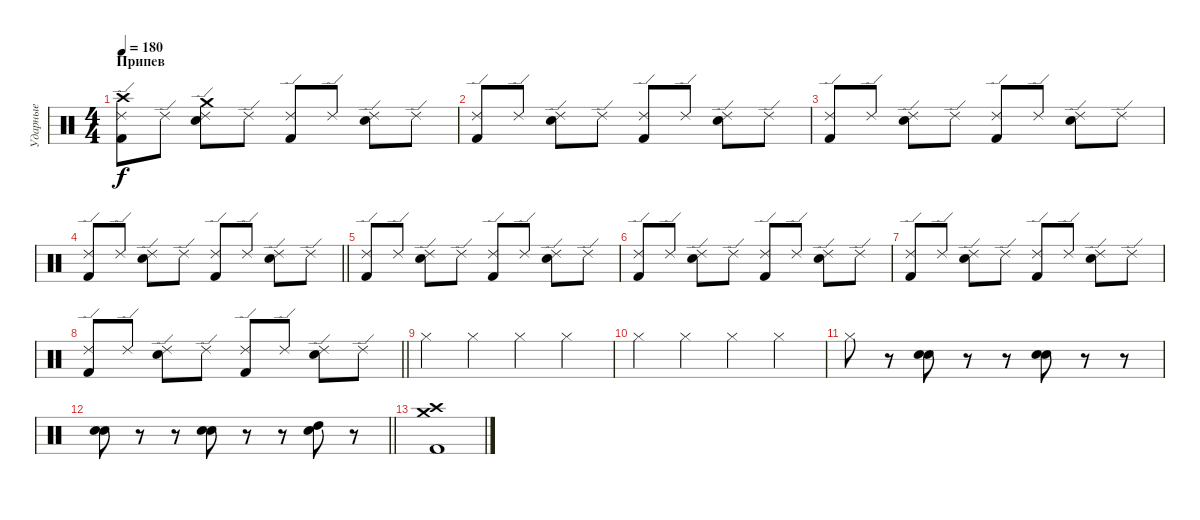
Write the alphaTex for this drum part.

\track ("Ударные" "Ударные") {instrument percussion}
\staff {score}
\articulation defaults
\ts (4 4)
\section ("" "Припев")
\tempo 180
\clef neutral
\ks c
("Crash high (hit)" "Ride (edge) 2" "Kick (hit) 2").8{dy f} "Ride (edge) 2".8 ("Crash medium (hit)" "Ride (edge) 2" "Electric Snare (hit)").8 "Ride (edge) 2".8 ("Ride (edge) 2" "Kick (hit) 2").8 "Ride (edge) 2".8 ("Ride (edge) 2" "Electric Snare (hit)").8 "Ride (edge) 2".8 |
("Ride (edge) 2" "Kick (hit) 2").8 "Ride (edge) 2".8 ("Ride (edge) 2" "Electric Snare (hit)").8 "Ride (edge) 2".8 ("Ride (edge) 2" "Kick (hit) 2").8 "Ride (edge) 2".8 ("Ride (edge) 2" "Electric Snare (hit)").8 "Ride (edge) 2".8 |
("Ride (edge) 2" "Kick (hit) 2").8 "Ride (edge) 2".8 ("Ride (edge) 2" "Electric Snare (hit)").8 "Ride (edge) 2".8 ("Ride (edge) 2" "Kick (hit) 2").8 "Ride (edge) 2".8 ("Ride (edge) 2" "Electric Snare (hit)").8 "Ride (edge) 2".8 |
\barLineRight lightlight
("Ride (edge) 2" "Kick (hit) 2").8 "Ride (edge) 2".8 ("Ride (edge) 2" "Electric Snare (hit)").8 "Ride (edge) 2".8 ("Ride (edge) 2" "Kick (hit) 2").8 "Ride (edge) 2".8 ("Ride (edge) 2" "Electric Snare (hit)").8 "Ride (edge) 2".8 |
("Ride (edge) 2" "Kick (hit) 2").8 "Ride (edge) 2".8 ("Ride (edge) 2" "Electric Snare (hit)").8 "Ride (edge) 2".8 ("Ride (edge) 2" "Kick (hit) 2").8 "Ride (edge) 2".8 ("Ride (edge) 2" "Electric Snare (hit)").8 "Ride (edge) 2".8 |
("Ride (edge) 2" "Kick (hit) 2").8 "Ride (edge) 2".8 ("Ride (edge) 2" "Electric Snare (hit)").8 "Ride (edge) 2".8 ("Ride (edge) 2" "Kick (hit) 2").8 "Ride (edge) 2".8 ("Ride (edge) 2" "Electric Snare (hit)").8 "Ride (edge) 2".8 |
("Ride (edge) 2" "Kick (hit) 2").8 "Ride (edge) 2".8 ("Ride (edge) 2" "Electric Snare (hit)").8 "Ride (edge) 2".8 ("Ride (edge) 2" "Kick (hit) 2").8 "Ride (edge) 2".8 ("Ride (edge) 2" "Electric Snare (hit)").8 "Ride (edge) 2".8 |
\barLineRight lightlight
("Ride (edge) 2" "Kick (hit) 2").8 "Ride (edge) 2".8 ("Ride (edge) 2" "Electric Snare (hit)").8 "Ride (edge) 2".8 ("Ride (edge) 2" "Kick (hit) 2").8 "Ride (edge) 2".8 ("Ride (edge) 2" "Electric Snare (hit)").8 "Ride (edge) 2".8 |
"Hi-Hat (closed)".4 "Hi-Hat (closed)".4 "Hi-Hat (closed)".4 "Hi-Hat (closed)".4 |
"Hi-Hat (closed)".4 "Hi-Hat (closed)".4 "Hi-Hat (closed)".4 "Hi-Hat (closed)".4 |
"Hi-Hat (closed)".8 r.8 ("Electric Snare (hit)" "Electric Snare (hit)").8 r.8 r.8 ("Electric Snare (hit)" "Electric Snare (hit)").8 r.8 r.8 |
\barLineRight lightlight
("Electric Snare (hit)" "Electric Snare (hit)").8 r.8 r.8 ("Electric Snare (hit)" "Electric Snare (hit)").8 r.8 r.8 ("Electric Snare (hit)" "High Tom (hit)").8 r.8 |
("Crash high (hit)" "Crash medium (hit)" "Kick (hit) 2").1
